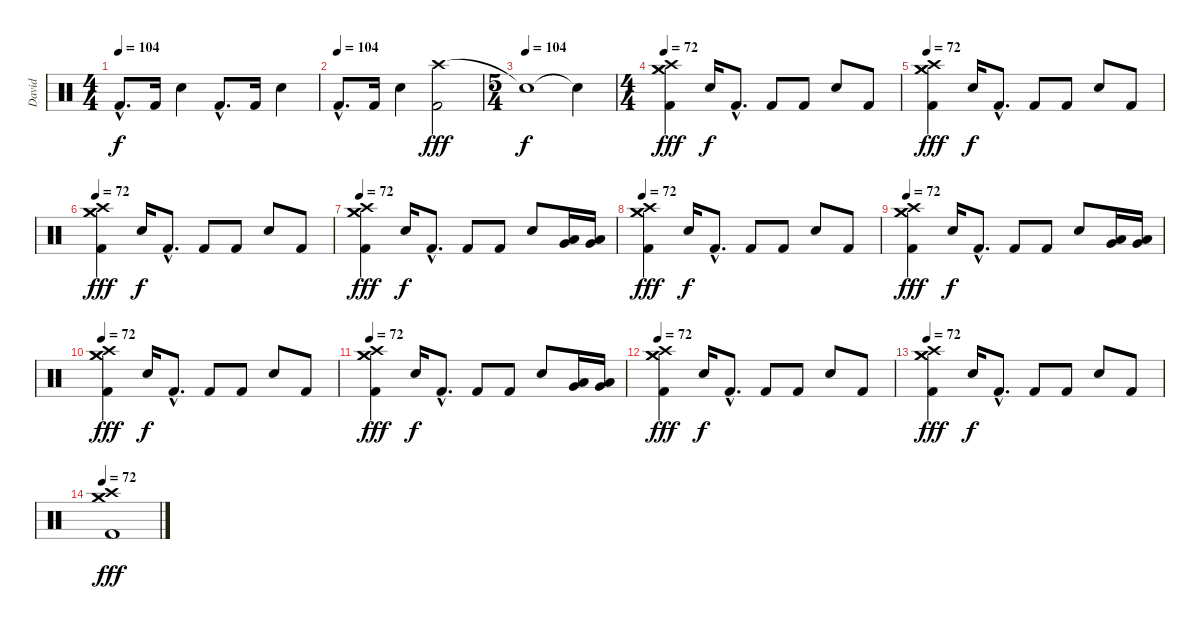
\track ("David" "David") {instrument percussion}
\staff {score}
\articulation defaults
\ts (4 4)
\tempo 104
\clef neutral
\ks c "Kick (hit) 2"{hac}.8{d dy f} "Kick (hit) 2".16 "Snare (hit) 2".4 "Kick (hit) 2"{hac}.8{d} "Kick (hit) 2".16 "Snare (hit) 2".4
|
\tempo (104)
"Kick (hit) 2"{hac}.8{d} "Kick (hit) 2".16 "Snare (hit) 2".4 ("Crash high (hit)" "Kick (hit) 2").2{dy fff} |
\ts (5 4)
\tempo (104)
"Snare (hit)"{t}.1{dy f} "Snare (hit)"{t}.4 |
\ts (4 4)
\tempo 72
("Crash medium (hit)" "Crash high (hit)" "Crash medium (hit)" "Kick (hit) 2").4{dy fff} "Snare (hit) 2".16{dy f} "Kick (hit) 2"{hac}.8{d} "Kick (hit) 2".8 "Kick (hit) 2".8 "Snare (hit) 2".8 "Kick (hit) 2".8 |
\tempo 72
("Crash medium (hit)" "Crash high (hit)" "Crash medium (hit)" "Kick (hit) 2").4{dy fff} "Snare (hit) 2".16{dy f} "Kick (hit) 2"{hac}.8{d} "Kick (hit) 2".8 "Kick (hit) 2".8 "Snare (hit) 2".8 "Kick (hit) 2".8 |
\tempo 72
("Crash medium (hit)" "Crash high (hit)" "Crash medium (hit)" "Kick (hit) 2").4{dy fff} "Snare (hit) 2".16{dy f} "Kick (hit) 2"{hac}.8{d} "Kick (hit) 2".8 "Kick (hit) 2".8 "Snare (hit) 2".8 "Kick (hit) 2".8 |
\tempo 72
("Crash medium (hit)" "Crash high (hit)" "Crash medium (hit)" "Kick (hit) 2").4{dy fff} "Snare (hit) 2".16{dy f} "Kick (hit) 2"{hac}.8{d} "Kick (hit) 2".8 "Kick (hit) 2".8 "Snare (hit) 2".8 ("Very Low Tom (hit)" "Low Floor Tom (hit)").16 ("Very Low Tom (hit)" "Low Floor Tom (hit)").16 |
\tempo 72
("Crash medium (hit)" "Crash high (hit)" "Crash medium (hit)" "Kick (hit) 2").4{dy fff} "Snare (hit) 2".16{dy f} "Kick (hit) 2"{hac}.8{d} "Kick (hit) 2".8 "Kick (hit) 2".8 "Snare (hit) 2".8 "Kick (hit) 2".8 |
\tempo 72
("Crash medium (hit)" "Crash high (hit)" "Crash medium (hit)" "Kick (hit) 2").4{dy fff} "Snare (hit) 2".16{dy f} "Kick (hit) 2"{hac}.8{d} "Kick (hit) 2".8 "Kick (hit) 2".8 "Snare (hit) 2".8 ("Very Low Tom (hit)" "Low Floor Tom (hit)").16 ("Very Low Tom (hit)" "Low Floor Tom (hit)").16 |
\tempo 72
("Crash medium (hit)" "Crash high (hit)" "Crash medium (hit)" "Kick (hit) 2").4{dy fff} "Snare (hit) 2".16{dy f} "Kick (hit) 2"{hac}.8{d} "Kick (hit) 2".8 "Kick (hit) 2".8 "Snare (hit) 2".8 "Kick (hit) 2".8 |
\tempo 72
("Crash medium (hit)" "Crash high (hit)" "Crash medium (hit)" "Kick (hit) 2").4{dy fff} "Snare (hit) 2".16{dy f} "Kick (hit) 2"{hac}.8{d} "Kick (hit) 2".8 "Kick (hit) 2".8 "Snare (hit) 2".8 ("Very Low Tom (hit)" "Low Floor Tom (hit)").16 ("Very Low Tom (hit)" "Low Floor Tom (hit)").16 |
\tempo 72
("Crash medium (hit)" "Crash high (hit)" "Crash medium (hit)" "Kick (hit) 2").4{dy fff} "Snare (hit) 2".16{dy f} "Kick (hit) 2"{hac}.8{d} "Kick (hit) 2".8 "Kick (hit) 2".8 "Snare (hit) 2".8 "Kick (hit) 2".8 |
\tempo 72
("Crash medium (hit)" "Crash high (hit)" "Crash medium (hit)" "Kick (hit) 2").4{dy fff} "Snare (hit) 2".16{dy f} "Kick (hit) 2"{hac}.8{d} "Kick (hit) 2".8 "Kick (hit) 2".8 "Snare (hit) 2".8 "Kick (hit) 2".8 |
\tempo 72
("Crash medium (hit)" "Crash high (hit)" "Crash medium (hit)" "Kick (hit) 2").1{dy fff}
